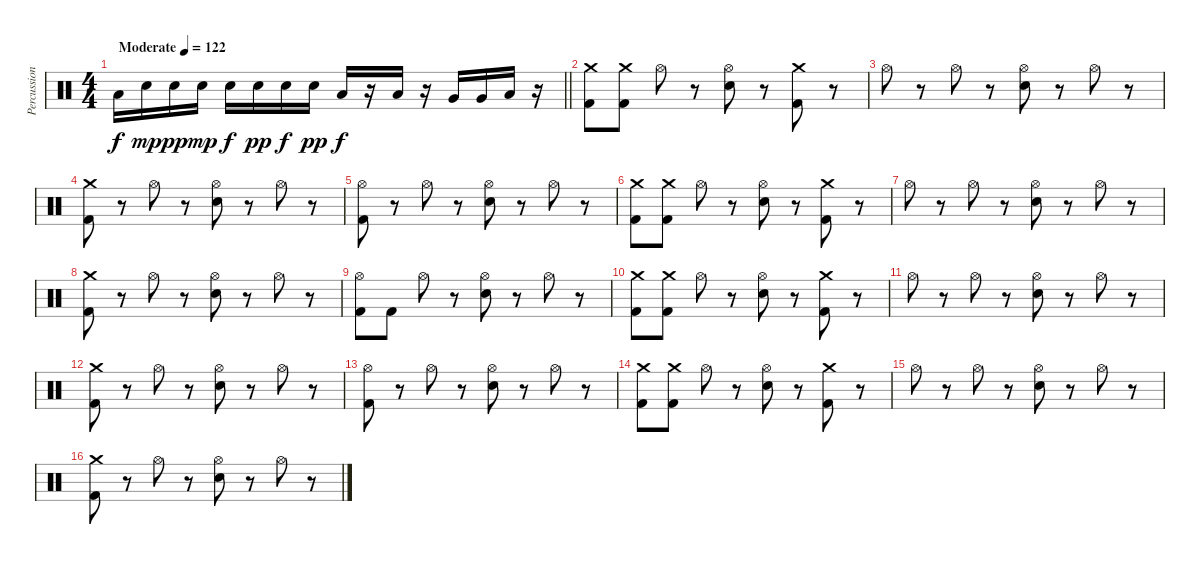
\track ("Percussion" "Percussion") {instrument percussion}
\staff {score}
\articulation defaults
\ts (4 4)
\section ("" "")
\tempo (122 "Moderate")
\clef neutral
\barLineRight lightlight
\ks c "Low Tom (hit)".16{dy f} "Electric Snare (hit)".16{dy mp} "Electric Snare (hit)".16{dy pp} "Electric Snare (hit)".16{dy mp} "Electric Snare (hit)".16{dy f} "Electric Snare (hit)".16{dy pp} "Electric Snare (hit)".16{dy f} "Electric Snare (hit)".16{dy pp} "Low Tom (hit)".16{dy f}
r.16 "Low Tom (hit)".16 r.16 "Very Low Tom (hit)".16 "Very Low Tom (hit)".16 "Low Floor Tom (hit)".16 r.16 |
\section ("" "")
("Crash medium (hit)" "Kick (hit) 2").8 ("Crash medium (hit)" "Kick (hit) 2").8 "Hi-Hat (open)".8 r.8 ("Hi-Hat (open)" "Electric Snare (hit)").8 r.8 ("Crash medium (hit)" "Kick (hit) 2").8 r.8 |
"Hi-Hat (open)".8 r.8 "Hi-Hat (open)".8 r.8 ("Hi-Hat (open)" "Electric Snare (hit)").8 r.8 "Hi-Hat (open)".8 r.8 |
("Crash medium (hit)" "Kick (hit) 2").8 r.8 "Hi-Hat (open)".8 r.8 ("Hi-Hat (open)" "Electric Snare (hit)").8 r.8 "Hi-Hat (open)".8 r.8 |
("Hi-Hat (open)" "Kick (hit) 2").8 r.8 "Hi-Hat (open)".8 r.8 ("Hi-Hat (open)" "Electric Snare (hit)").8 r.8 "Hi-Hat (open)".8 r.8 |
("Crash medium (hit)" "Kick (hit) 2").8 ("Crash medium (hit)" "Kick (hit) 2").8 "Hi-Hat (open)".8 r.8 ("Hi-Hat (open)" "Electric Snare (hit)").8 r.8 ("Crash medium (hit)" "Kick (hit) 2").8 r.8 |
"Hi-Hat (open)".8 r.8 "Hi-Hat (open)".8 r.8 ("Hi-Hat (open)" "Electric Snare (hit)").8 r.8 "Hi-Hat (open)".8 r.8 |
("Crash medium (hit)" "Kick (hit) 2").8 r.8 "Hi-Hat (open)".8 r.8 ("Hi-Hat (open)" "Electric Snare (hit)").8 r.8 "Hi-Hat (open)".8 r.8 |
("Hi-Hat (open)" "Kick (hit) 2").8 "Kick (hit) 2".8 "Hi-Hat (open)".8 r.8 ("Hi-Hat (open)" "Electric Snare (hit)").8 r.8 "Hi-Hat (open)".8 r.8 |
("Crash medium (hit)" "Kick (hit) 2").8 ("Crash medium (hit)" "Kick (hit) 2").8 "Hi-Hat (open)".8 r.8 ("Hi-Hat (open)" "Electric Snare (hit)").8 r.8 ("Crash medium (hit)" "Kick (hit) 2").8 r.8 |
"Hi-Hat (open)".8 r.8 "Hi-Hat (open)".8 r.8 ("Hi-Hat (open)" "Electric Snare (hit)").8 r.8 "Hi-Hat (open)".8 r.8 |
("Crash medium (hit)" "Kick (hit) 2").8 r.8 "Hi-Hat (open)".8 r.8 ("Hi-Hat (open)" "Electric Snare (hit)").8 r.8 "Hi-Hat (open)".8 r.8 |
("Hi-Hat (open)" "Kick (hit) 2").8 r.8 "Hi-Hat (open)".8 r.8 ("Hi-Hat (open)" "Electric Snare (hit)").8 r.8 "Hi-Hat (open)".8 r.8 |
("Crash medium (hit)" "Kick (hit) 2").8 ("Crash medium (hit)" "Kick (hit) 2").8 "Hi-Hat (open)".8 r.8 ("Hi-Hat (open)" "Electric Snare (hit)").8 r.8 ("Crash medium (hit)" "Kick (hit) 2").8 r.8 |
"Hi-Hat (open)".8 r.8 "Hi-Hat (open)".8 r.8 ("Hi-Hat (open)" "Electric Snare (hit)").8 r.8 "Hi-Hat (open)".8 r.8 |
("Crash medium (hit)" "Kick (hit) 2").8 r.8 "Hi-Hat (open)".8 r.8 ("Hi-Hat (open)" "Electric Snare (hit)").8 r.8 "Hi-Hat (open)".8 r.8
